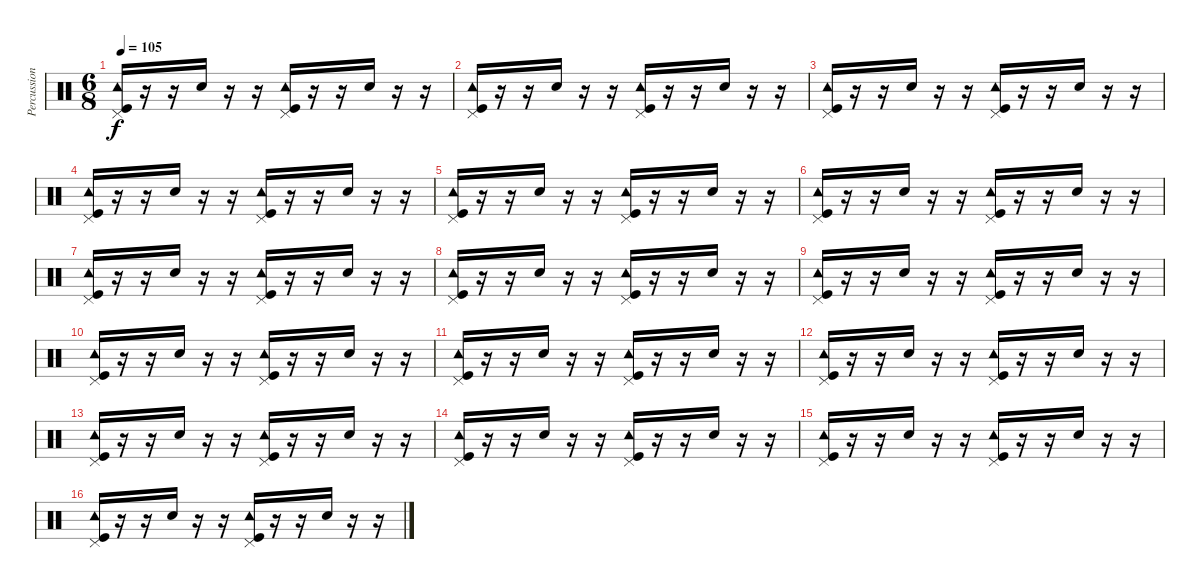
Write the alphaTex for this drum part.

\track ("Percussions" "Percussion") {instrument percussion}
\staff {score}
\articulation defaults
\ts (6 8)
\tempo 105
\clef neutral
\ks c
("Pedal Hi-Hat (hit)" "Tambourine (hit)" "Kick (hit)").16{dy f} r.16 r.16 "Snare (hit) 2".16 r.16 r.16 ("Pedal Hi-Hat (hit)" "Tambourine (hit)" "Kick (hit)").16 r.16 r.16 "Snare (hit) 2".16 r.16 r.16 |
("Pedal Hi-Hat (hit)" "Tambourine (hit)" "Kick (hit)").16 r.16 r.16 "Snare (hit) 2".16 r.16 r.16 ("Pedal Hi-Hat (hit)" "Tambourine (hit)" "Kick (hit)").16 r.16 r.16 "Snare (hit) 2".16 r.16 r.16 |
("Pedal Hi-Hat (hit)" "Tambourine (hit)" "Kick (hit)").16 r.16 r.16 "Snare (hit) 2".16 r.16 r.16 ("Pedal Hi-Hat (hit)" "Tambourine (hit)" "Kick (hit)").16 r.16 r.16 "Snare (hit) 2".16 r.16 r.16 |
("Pedal Hi-Hat (hit)" "Tambourine (hit)" "Kick (hit)").16 r.16 r.16 "Snare (hit) 2".16 r.16 r.16 ("Pedal Hi-Hat (hit)" "Tambourine (hit)" "Kick (hit)").16 r.16 r.16 "Snare (hit) 2".16 r.16 r.16 |
("Pedal Hi-Hat (hit)" "Tambourine (hit)" "Kick (hit)").16 r.16 r.16 "Snare (hit) 2".16 r.16 r.16 ("Pedal Hi-Hat (hit)" "Tambourine (hit)" "Kick (hit)").16 r.16 r.16 "Snare (hit) 2".16 r.16 r.16 |
("Pedal Hi-Hat (hit)" "Tambourine (hit)" "Kick (hit)").16 r.16 r.16 "Snare (hit) 2".16 r.16 r.16 ("Pedal Hi-Hat (hit)" "Tambourine (hit)" "Kick (hit)").16 r.16 r.16 "Snare (hit) 2".16 r.16 r.16 |
("Pedal Hi-Hat (hit)" "Tambourine (hit)" "Kick (hit)").16 r.16 r.16 "Snare (hit) 2".16 r.16 r.16 ("Pedal Hi-Hat (hit)" "Tambourine (hit)" "Kick (hit)").16 r.16 r.16 "Snare (hit) 2".16 r.16 r.16 |
("Pedal Hi-Hat (hit)" "Tambourine (hit)" "Kick (hit)").16 r.16 r.16 "Snare (hit) 2".16 r.16 r.16 ("Pedal Hi-Hat (hit)" "Tambourine (hit)" "Kick (hit)").16 r.16 r.16 "Snare (hit) 2".16 r.16 r.16 |
("Pedal Hi-Hat (hit)" "Tambourine (hit)" "Kick (hit)").16 r.16 r.16 "Snare (hit) 2".16 r.16 r.16 ("Pedal Hi-Hat (hit)" "Tambourine (hit)" "Kick (hit)").16 r.16 r.16 "Snare (hit) 2".16 r.16 r.16 |
("Pedal Hi-Hat (hit)" "Tambourine (hit)" "Kick (hit)").16 r.16 r.16 "Snare (hit) 2".16 r.16 r.16 ("Pedal Hi-Hat (hit)" "Tambourine (hit)" "Kick (hit)").16 r.16 r.16 "Snare (hit) 2".16 r.16 r.16 |
("Pedal Hi-Hat (hit)" "Tambourine (hit)" "Kick (hit)").16 r.16 r.16 "Snare (hit) 2".16 r.16 r.16 ("Pedal Hi-Hat (hit)" "Tambourine (hit)" "Kick (hit)").16 r.16 r.16 "Snare (hit) 2".16 r.16 r.16 |
("Pedal Hi-Hat (hit)" "Tambourine (hit)" "Kick (hit)").16 r.16 r.16 "Snare (hit) 2".16 r.16 r.16 ("Pedal Hi-Hat (hit)" "Tambourine (hit)" "Kick (hit)").16 r.16 r.16 "Snare (hit) 2".16 r.16 r.16 |
("Pedal Hi-Hat (hit)" "Tambourine (hit)" "Kick (hit)").16 r.16 r.16 "Snare (hit) 2".16 r.16 r.16 ("Pedal Hi-Hat (hit)" "Tambourine (hit)" "Kick (hit)").16 r.16 r.16 "Snare (hit) 2".16 r.16 r.16 |
("Pedal Hi-Hat (hit)" "Tambourine (hit)" "Kick (hit)").16 r.16 r.16 "Snare (hit) 2".16 r.16 r.16 ("Pedal Hi-Hat (hit)" "Tambourine (hit)" "Kick (hit)").16 r.16 r.16 "Snare (hit) 2".16 r.16 r.16 |
("Pedal Hi-Hat (hit)" "Tambourine (hit)" "Kick (hit)").16 r.16 r.16 "Snare (hit) 2".16 r.16 r.16 ("Pedal Hi-Hat (hit)" "Tambourine (hit)" "Kick (hit)").16 r.16 r.16 "Snare (hit) 2".16 r.16 r.16 |
("Pedal Hi-Hat (hit)" "Tambourine (hit)" "Kick (hit)").16 r.16 r.16 "Snare (hit) 2".16 r.16 r.16 ("Pedal Hi-Hat (hit)" "Tambourine (hit)" "Kick (hit)").16 r.16 r.16 "Snare (hit) 2".16 r.16 r.16
